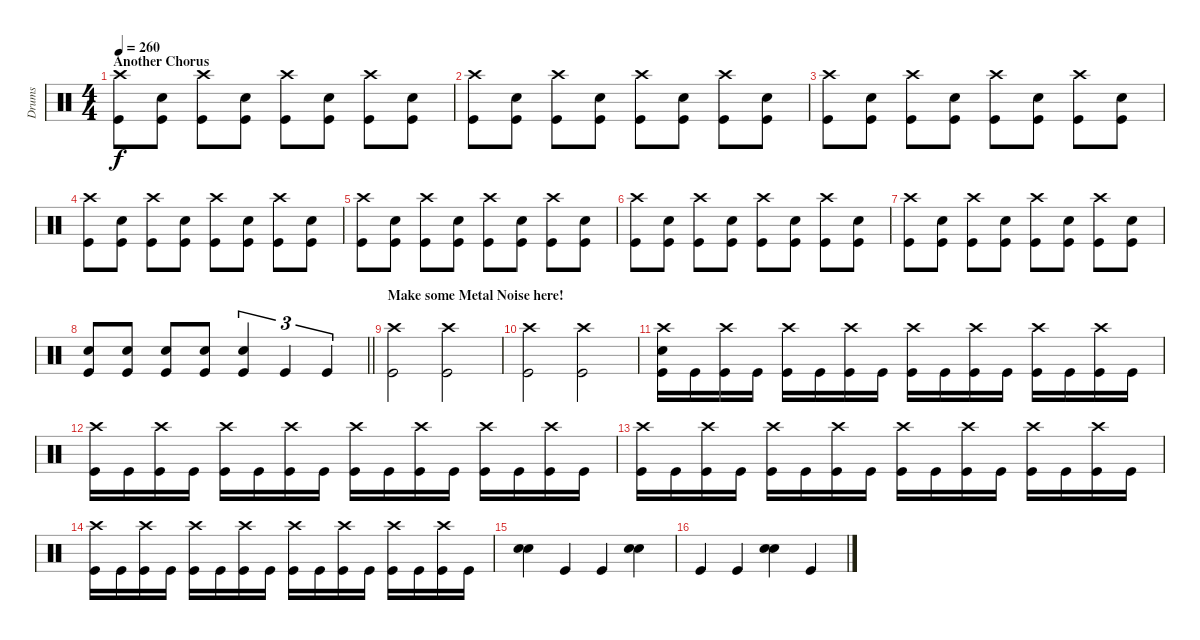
\track ("Drums" "Drums") {instrument percussion}
\staff {score}
\articulation defaults
\ts (4 4)
\section ("" "Another Chorus")
\tempo 260
\clef neutral
\ks c
("Kick (hit)" "Crash high (hit)").8{dy f} ("Snare (hit) 2" "Kick (hit)").8 ("Kick (hit)" "Crash high (hit)").8 ("Snare (hit) 2" "Kick (hit)").8 ("Kick (hit)" "Crash high (hit)").8 ("Snare (hit) 2" "Kick (hit)").8 ("Kick (hit)" "Crash high (hit)").8 ("Snare (hit) 2" "Kick (hit)").8 |
("Kick (hit)" "Crash high (hit)").8 ("Snare (hit) 2" "Kick (hit)").8 ("Kick (hit)" "Crash high (hit)").8 ("Snare (hit) 2" "Kick (hit)").8 ("Kick (hit)" "Crash high (hit)").8 ("Snare (hit) 2" "Kick (hit)").8 ("Kick (hit)" "Crash high (hit)").8 ("Snare (hit) 2" "Kick (hit)").8 |
("Kick (hit)" "Crash high (hit)").8 ("Snare (hit) 2" "Kick (hit)").8 ("Kick (hit)" "Crash high (hit)").8 ("Snare (hit) 2" "Kick (hit)").8 ("Kick (hit)" "Crash high (hit)").8 ("Snare (hit) 2" "Kick (hit)").8 ("Kick (hit)" "Crash high (hit)").8 ("Snare (hit) 2" "Kick (hit)").8 |
("Kick (hit)" "Crash high (hit)").8 ("Snare (hit) 2" "Kick (hit)").8 ("Kick (hit)" "Crash high (hit)").8 ("Snare (hit) 2" "Kick (hit)").8 ("Kick (hit)" "Crash high (hit)").8 ("Snare (hit) 2" "Kick (hit)").8 ("Kick (hit)" "Crash high (hit)").8 ("Snare (hit) 2" "Kick (hit)").8 |
("Kick (hit)" "Crash high (hit)").8 ("Snare (hit) 2" "Kick (hit)").8 ("Kick (hit)" "Crash high (hit)").8 ("Snare (hit) 2" "Kick (hit)").8 ("Kick (hit)" "Crash high (hit)").8 ("Snare (hit) 2" "Kick (hit)").8 ("Kick (hit)" "Crash high (hit)").8 ("Snare (hit) 2" "Kick (hit)").8 |
("Kick (hit)" "Crash high (hit)").8 ("Snare (hit) 2" "Kick (hit)").8 ("Kick (hit)" "Crash high (hit)").8 ("Snare (hit) 2" "Kick (hit)").8 ("Kick (hit)" "Crash high (hit)").8 ("Snare (hit) 2" "Kick (hit)").8 ("Kick (hit)" "Crash high (hit)").8 ("Snare (hit) 2" "Kick (hit)").8 |
("Kick (hit)" "Crash high (hit)").8 ("Snare (hit) 2" "Kick (hit)").8 ("Kick (hit)" "Crash high (hit)").8 ("Snare (hit) 2" "Kick (hit)").8 ("Kick (hit)" "Crash high (hit)").8 ("Snare (hit) 2" "Kick (hit)").8 ("Kick (hit)" "Crash high (hit)").8 ("Snare (hit) 2" "Kick (hit)").8 |
\barLineRight lightlight
("Kick (hit)" "Snare (hit) 2").8 ("Snare (hit) 2" "Kick (hit)").8 ("Kick (hit)" "Snare (hit) 2").8 ("Snare (hit) 2" "Kick (hit)").8 ("Snare (hit) 2" "Kick (hit)").4{tu (3 2)} "Kick (hit)".4{tu (3 2)} "Kick (hit)".4{tu (3 2)} |
\section ("" "Make some Metal Noise here!")
("Kick (hit)" "Crash high (hit)").2 ("Kick (hit)" "Crash high (hit)").2 |
("Kick (hit)" "Crash high (hit)").2 ("Kick (hit)" "Crash high (hit)").2 |
("Kick (hit)" "Crash high (hit)" "Snare (hit) 2").16 "Kick (hit)".16 ("Kick (hit)" "Crash high (hit)").16 "Kick (hit)".16 ("Kick (hit)" "Crash high (hit)").16 "Kick (hit)".16 ("Kick (hit)" "Crash high (hit)").16 "Kick (hit)".16 ("Kick (hit)" "Crash high (hit)").16 "Kick (hit)".16 ("Kick (hit)" "Crash high (hit)").16 "Kick (hit)".16 ("Kick (hit)" "Crash high (hit)").16 "Kick (hit)".16 ("Kick (hit)" "Crash high (hit)").16 "Kick (hit)".16 |
("Kick (hit)" "Crash high (hit)").16 "Kick (hit)".16 ("Kick (hit)" "Crash high (hit)").16 "Kick (hit)".16 ("Kick (hit)" "Crash high (hit)").16 "Kick (hit)".16 ("Kick (hit)" "Crash high (hit)").16 "Kick (hit)".16 ("Kick (hit)" "Crash high (hit)").16 "Kick (hit)".16 ("Kick (hit)" "Crash high (hit)").16 "Kick (hit)".16 ("Kick (hit)" "Crash high (hit)").16 "Kick (hit)".16 ("Kick (hit)" "Crash high (hit)").16 "Kick (hit)".16 |
("Kick (hit)" "Crash high (hit)").16 "Kick (hit)".16 ("Kick (hit)" "Crash high (hit)").16 "Kick (hit)".16 ("Kick (hit)" "Crash high (hit)").16 "Kick (hit)".16 ("Kick (hit)" "Crash high (hit)").16 "Kick (hit)".16 ("Kick (hit)" "Crash high (hit)").16 "Kick (hit)".16 ("Kick (hit)" "Crash high (hit)").16 "Kick (hit)".16 ("Kick (hit)" "Crash high (hit)").16 "Kick (hit)".16 ("Kick (hit)" "Crash high (hit)").16 "Kick (hit)".16 |
("Kick (hit)" "Crash high (hit)").16 "Kick (hit)".16 ("Kick (hit)" "Crash high (hit)").16 "Kick (hit)".16 ("Kick (hit)" "Crash high (hit)").16 "Kick (hit)".16 ("Kick (hit)" "Crash high (hit)").16 "Kick (hit)".16 ("Kick (hit)" "Crash high (hit)").16 "Kick (hit)".16 ("Kick (hit)" "Crash high (hit)").16 "Kick (hit)".16 ("Kick (hit)" "Crash high (hit)").16 "Kick (hit)".16 ("Kick (hit)" "Crash high (hit)").16 "Kick (hit)".16 |
("Snare (hit) 2" "Snare (hit) 2").4 "Kick (hit)".4 "Kick (hit)".4 ("Snare (hit) 2" "Snare (hit) 2").4 |
"Kick (hit)".4 "Kick (hit)".4 ("Snare (hit) 2" "Snare (hit) 2").4 "Kick (hit)".4
